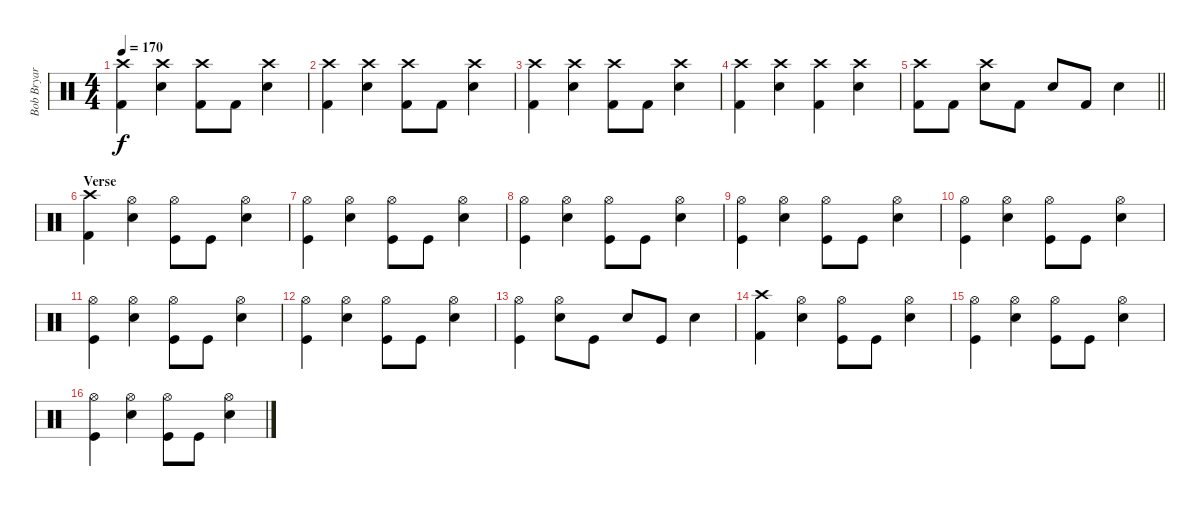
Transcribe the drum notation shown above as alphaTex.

\track ("Bob Bryar - Drums" "Bob Bryar ") {instrument percussion}
\staff {score}
\articulation defaults
\ts (4 4)
\tempo 170
\clef neutral
\ks c
("Crash high (hit)" "Kick (hit) 2").4{dy f} ("Snare (hit) 2" "Crash high (hit)").4 ("Kick (hit) 2" "Crash high (hit)").8 "Kick (hit) 2".8 ("Snare (hit) 2" "Crash high (hit)").4 |
("Crash high (hit)" "Kick (hit) 2").4 ("Snare (hit) 2" "Crash high (hit)").4 ("Kick (hit) 2" "Crash high (hit)").8 "Kick (hit) 2".8 ("Snare (hit) 2" "Crash high (hit)").4 |
("Crash high (hit)" "Kick (hit) 2").4 ("Snare (hit) 2" "Crash high (hit)").4 ("Kick (hit) 2" "Crash high (hit)").8 "Kick (hit) 2".8 ("Snare (hit) 2" "Crash high (hit)").4 |
("Crash high (hit)" "Kick (hit) 2").4 ("Snare (hit) 2" "Crash high (hit)").4 ("Kick (hit) 2" "Crash high (hit)").4 ("Snare (hit) 2" "Crash high (hit)").4 |
\barLineRight lightlight
("Kick (hit) 2" "Crash high (hit)").8 "Kick (hit) 2".8 ("Snare (hit) 2" "Crash high (hit)").8 "Kick (hit) 2".8 "Snare (hit) 2".8 "Kick (hit) 2".8 "Snare (hit) 2".4 |
\section ("" "Verse")
("Kick (hit) 2" "Crash high (hit)").4 ("Hi-Hat (open)" "Snare (hit) 2").4 ("Hi-Hat (open)" "Kick (hit)").8 "Kick (hit)".8 ("Snare (hit) 2" "Hi-Hat (open)").4 |
("Hi-Hat (open)" "Kick (hit)").4 ("Snare (hit) 2" "Hi-Hat (open)").4 ("Hi-Hat (open)" "Kick (hit)").8 "Kick (hit)".8 ("Snare (hit) 2" "Hi-Hat (open)").4 |
("Hi-Hat (open)" "Kick (hit)").4 ("Snare (hit) 2" "Hi-Hat (open)").4 ("Hi-Hat (open)" "Kick (hit)").8 "Kick (hit)".8 ("Snare (hit) 2" "Hi-Hat (open)").4 |
("Hi-Hat (open)" "Kick (hit)").4 ("Snare (hit) 2" "Hi-Hat (open)").4 ("Hi-Hat (open)" "Kick (hit)").8 "Kick (hit)".8 ("Snare (hit) 2" "Hi-Hat (open)").4 |
("Hi-Hat (open)" "Kick (hit)").4 ("Snare (hit) 2" "Hi-Hat (open)").4 ("Hi-Hat (open)" "Kick (hit)").8 "Kick (hit)".8 ("Snare (hit) 2" "Hi-Hat (open)").4 |
("Hi-Hat (open)" "Kick (hit)").4 ("Snare (hit) 2" "Hi-Hat (open)").4 ("Hi-Hat (open)" "Kick (hit)").8 "Kick (hit)".8 ("Snare (hit) 2" "Hi-Hat (open)").4 |
("Hi-Hat (open)" "Kick (hit)").4 ("Snare (hit) 2" "Hi-Hat (open)").4 ("Hi-Hat (open)" "Kick (hit)").8 "Kick (hit)".8 ("Snare (hit) 2" "Hi-Hat (open)").4 |
("Hi-Hat (open)" "Kick (hit)").4 ("Snare (hit) 2" "Hi-Hat (open)").8 "Kick (hit)".8 "Snare (hit) 2".8 "Kick (hit)".8 "Snare (hit) 2".4 |
("Kick (hit) 2" "Crash high (hit)").4 ("Hi-Hat (open)" "Snare (hit) 2").4 ("Hi-Hat (open)" "Kick (hit)").8 "Kick (hit)".8 ("Snare (hit) 2" "Hi-Hat (open)").4 |
("Hi-Hat (open)" "Kick (hit)").4 ("Snare (hit) 2" "Hi-Hat (open)").4 ("Hi-Hat (open)" "Kick (hit)").8 "Kick (hit)".8 ("Snare (hit) 2" "Hi-Hat (open)").4 |
("Hi-Hat (open)" "Kick (hit)").4 ("Snare (hit) 2" "Hi-Hat (open)").4 ("Hi-Hat (open)" "Kick (hit)").8 "Kick (hit)".8 ("Snare (hit) 2" "Hi-Hat (open)").4
